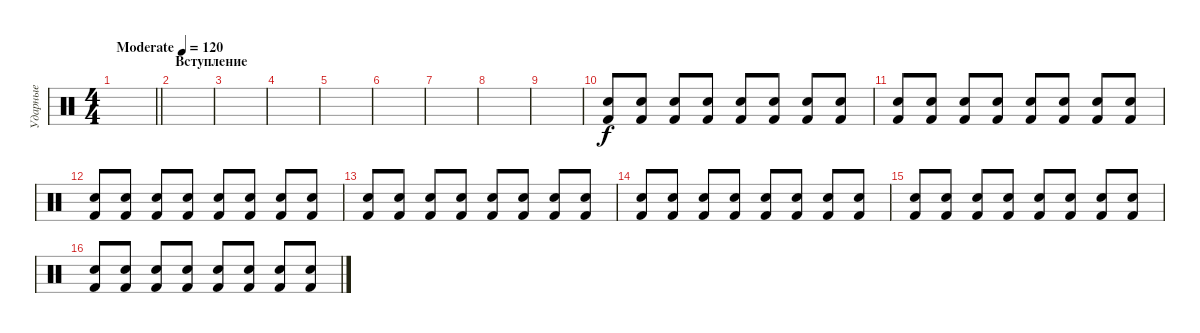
\track ("Ударные" "Ударные") {instrument percussion}
\staff {score}
\articulation defaults
\ts (4 4)
\tempo (120 "Moderate")
\clef neutral
\barLineRight lightlight
\ks c
|
\section ("" "Вступление")
|
|
|
|
|
|
|
|
("Snare (hit) 2" "Kick (hit) 2").8{volume 7} ("Snare (hit) 2" "Kick (hit) 2").8 ("Snare (hit) 2" "Kick (hit) 2").8 ("Snare (hit) 2" "Kick (hit) 2").8 ("Snare (hit) 2" "Kick (hit) 2").8 ("Snare (hit) 2" "Kick (hit) 2").8 ("Snare (hit) 2" "Kick (hit) 2").8 ("Snare (hit) 2" "Kick (hit) 2").8 |
("Snare (hit) 2" "Kick (hit) 2").8{volume 8} ("Snare (hit) 2" "Kick (hit) 2").8 ("Snare (hit) 2" "Kick (hit) 2").8 ("Snare (hit) 2" "Kick (hit) 2").8 ("Snare (hit) 2" "Kick (hit) 2").8 ("Snare (hit) 2" "Kick (hit) 2").8 ("Snare (hit) 2" "Kick (hit) 2").8 ("Snare (hit) 2" "Kick (hit) 2").8 |
("Snare (hit) 2" "Kick (hit) 2").8{volume 9} ("Snare (hit) 2" "Kick (hit) 2").8 ("Snare (hit) 2" "Kick (hit) 2").8 ("Snare (hit) 2" "Kick (hit) 2").8 ("Snare (hit) 2" "Kick (hit) 2").8 ("Snare (hit) 2" "Kick (hit) 2").8 ("Snare (hit) 2" "Kick (hit) 2").8 ("Snare (hit) 2" "Kick (hit) 2").8 |
("Snare (hit) 2" "Kick (hit) 2").8{volume 10} ("Snare (hit) 2" "Kick (hit) 2").8 ("Snare (hit) 2" "Kick (hit) 2").8 ("Snare (hit) 2" "Kick (hit) 2").8 ("Snare (hit) 2" "Kick (hit) 2").8 ("Snare (hit) 2" "Kick (hit) 2").8 ("Snare (hit) 2" "Kick (hit) 2").8 ("Snare (hit) 2" "Kick (hit) 2").8 |
("Snare (hit) 2" "Kick (hit) 2").8{volume 11} ("Snare (hit) 2" "Kick (hit) 2").8 ("Snare (hit) 2" "Kick (hit) 2").8 ("Snare (hit) 2" "Kick (hit) 2").8 ("Snare (hit) 2" "Kick (hit) 2").8 ("Snare (hit) 2" "Kick (hit) 2").8 ("Snare (hit) 2" "Kick (hit) 2").8 ("Snare (hit) 2" "Kick (hit) 2").8 |
("Snare (hit) 2" "Kick (hit) 2").8{volume 12} ("Snare (hit) 2" "Kick (hit) 2").8 ("Snare (hit) 2" "Kick (hit) 2").8 ("Snare (hit) 2" "Kick (hit) 2").8 ("Snare (hit) 2" "Kick (hit) 2").8 ("Snare (hit) 2" "Kick (hit) 2").8 ("Snare (hit) 2" "Kick (hit) 2").8 ("Snare (hit) 2" "Kick (hit) 2").8 |
("Snare (hit) 2" "Kick (hit) 2").8{volume 13} ("Snare (hit) 2" "Kick (hit) 2").8 ("Snare (hit) 2" "Kick (hit) 2").8 ("Snare (hit) 2" "Kick (hit) 2").8 ("Snare (hit) 2" "Kick (hit) 2").8 ("Snare (hit) 2" "Kick (hit) 2").8 ("Snare (hit) 2" "Kick (hit) 2").8 ("Snare (hit) 2" "Kick (hit) 2").8
